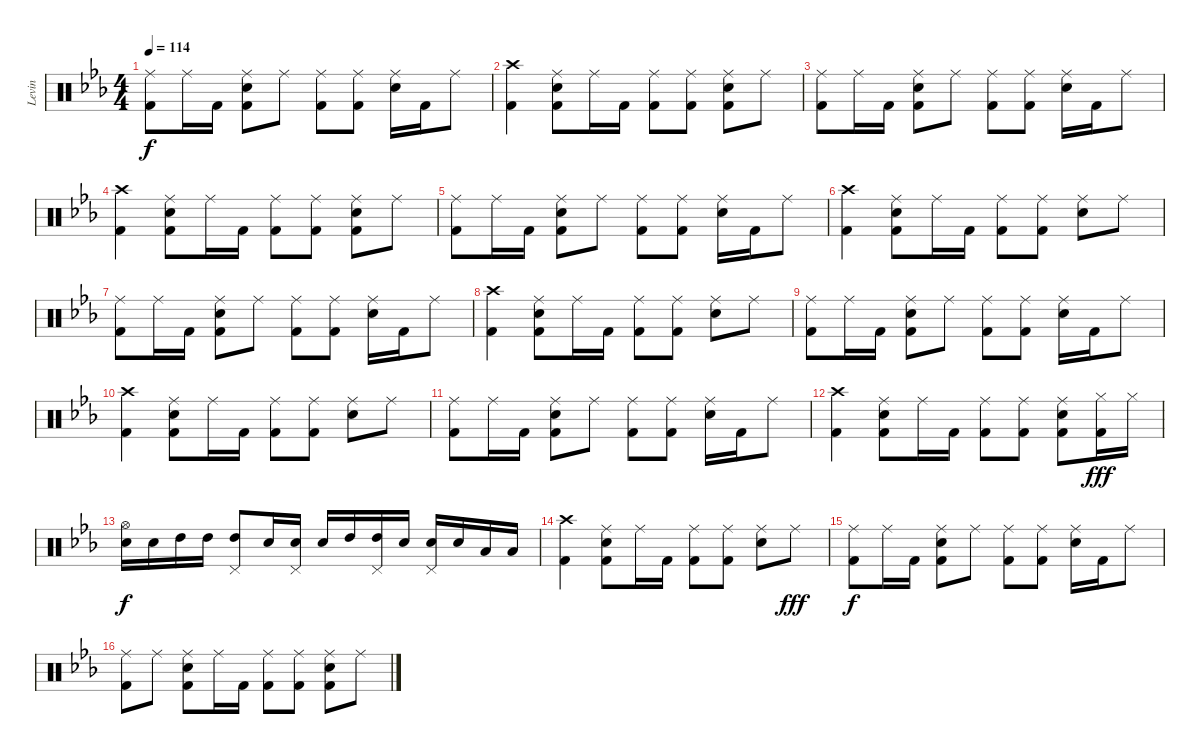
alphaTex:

\track ("Levin" "Levin") {instrument percussion}
\staff {score}
\articulation defaults
\ts (4 4)
\tempo 114
\clef neutral
\ks eb
("Ride (middle)" "Kick (hit) 2").8{dy f} "Ride (middle)".16 "Kick (hit) 2".16 ("Ride (middle)" "Electric Snare (hit)" "Kick (hit) 2").8 "Ride (middle)".8 ("Ride (middle)" "Kick (hit) 2").8 ("Ride (middle)" "Kick (hit) 2").8 ("Ride (middle)" "Electric Snare (hit)").16 "Kick (hit) 2".16 "Ride (middle)".8 |
("Crash high (hit)" "Kick (hit) 2").4 ("Ride (middle)" "Electric Snare (hit)" "Kick (hit) 2").8 "Ride (middle)".16 "Kick (hit) 2".16 ("Ride (middle)" "Kick (hit) 2").8 ("Ride (middle)" "Kick (hit) 2").8 ("Ride (middle)" "Electric Snare (hit)" "Kick (hit) 2").8 "Ride (middle)".8 |
("Ride (middle)" "Kick (hit) 2").8 "Ride (middle)".16 "Kick (hit) 2".16 ("Ride (middle)" "Electric Snare (hit)" "Kick (hit) 2").8 "Ride (middle)".8 ("Ride (middle)" "Kick (hit) 2").8 ("Ride (middle)" "Kick (hit) 2").8 ("Ride (middle)" "Electric Snare (hit)").16 "Kick (hit) 2".16 "Ride (middle)".8 |
("Crash high (hit)" "Kick (hit) 2").4 ("Ride (middle)" "Electric Snare (hit)" "Kick (hit) 2").8 "Ride (middle)".16 "Kick (hit) 2".16 ("Ride (middle)" "Kick (hit) 2").8 ("Ride (middle)" "Kick (hit) 2").8 ("Ride (middle)" "Electric Snare (hit)" "Kick (hit) 2").8 "Ride (middle)".8 |
("Ride (middle)" "Kick (hit) 2").8 "Ride (middle)".16 "Kick (hit) 2".16 ("Ride (middle)" "Electric Snare (hit)" "Kick (hit) 2").8 "Ride (middle)".8 ("Ride (middle)" "Kick (hit) 2").8 ("Ride (middle)" "Kick (hit) 2").8 ("Ride (middle)" "Electric Snare (hit)").16 "Kick (hit) 2".16 "Ride (middle)".8 |
("Crash high (hit)" "Kick (hit) 2").4 ("Ride (middle)" "Electric Snare (hit)" "Kick (hit) 2").8 "Ride (middle)".16 "Kick (hit) 2".16 ("Ride (middle)" "Kick (hit) 2").8 ("Ride (middle)" "Kick (hit) 2").8 ("Ride (middle)" "Electric Snare (hit)").8 "Ride (middle)".8 |
("Ride (middle)" "Kick (hit) 2").8 "Ride (middle)".16 "Kick (hit) 2".16 ("Ride (middle)" "Electric Snare (hit)" "Kick (hit) 2").8 "Ride (middle)".8 ("Ride (middle)" "Kick (hit) 2").8 ("Ride (middle)" "Kick (hit) 2").8 ("Ride (middle)" "Electric Snare (hit)").16 "Kick (hit) 2".16 "Ride (middle)".8 |
("Crash high (hit)" "Kick (hit) 2").4 ("Ride (middle)" "Electric Snare (hit)" "Kick (hit) 2").8 "Ride (middle)".16 "Kick (hit) 2".16 ("Ride (middle)" "Kick (hit) 2").8 ("Ride (middle)" "Kick (hit) 2").8 ("Ride (middle)" "Electric Snare (hit)").8 "Ride (middle)".8 |
("Ride (middle)" "Kick (hit) 2").8 "Ride (middle)".16 "Kick (hit) 2".16 ("Ride (middle)" "Electric Snare (hit)" "Kick (hit) 2").8 "Ride (middle)".8 ("Ride (middle)" "Kick (hit) 2").8 ("Ride (middle)" "Kick (hit) 2").8 ("Ride (middle)" "Electric Snare (hit)").16 "Kick (hit) 2".16 "Ride (middle)".8 |
("Crash high (hit)" "Kick (hit) 2").4 ("Ride (middle)" "Electric Snare (hit)" "Kick (hit) 2").8 "Ride (middle)".16 "Kick (hit) 2".16 ("Ride (middle)" "Kick (hit) 2").8 ("Ride (middle)" "Kick (hit) 2").8 ("Ride (middle)" "Electric Snare (hit)").8 "Ride (middle)".8 |
("Ride (middle)" "Kick (hit) 2").8 "Ride (middle)".16 "Kick (hit) 2".16 ("Ride (middle)" "Electric Snare (hit)" "Kick (hit) 2").8 "Ride (middle)".8 ("Ride (middle)" "Kick (hit) 2").8 ("Ride (middle)" "Kick (hit) 2").8 ("Ride (middle)" "Electric Snare (hit)").16 "Kick (hit) 2".16 "Ride (middle)".8 |
("Crash high (hit)" "Kick (hit) 2").4 ("Ride (middle)" "Electric Snare (hit)" "Kick (hit) 2").8 "Ride (middle)".16 "Kick (hit) 2".16 ("Ride (middle)" "Kick (hit) 2").8 ("Ride (middle)" "Kick (hit) 2").8 ("Ride (middle)" "Electric Snare (hit)" "Kick (hit) 2").8 ("Hi-Hat (closed)" "Kick (hit) 2").16{dy fff} "Hi-Hat (closed)".16 |
("Hi-Hat (open)" "Electric Snare (hit)").16{dy f} "Electric Snare (hit)".16 "High Tom (hit)".16 "High Tom (hit)".16 ("High Tom (hit)" "Pedal Hi-Hat (hit)").8 "Electric Snare (hit)".16 ("Electric Snare (hit)" "Pedal Hi-Hat (hit)").16 "Electric Snare (hit)".16 "High Tom (hit)".16 ("High Tom (hit)" "Pedal Hi-Hat (hit)").16 "Electric Snare (hit)".16 ("Electric Snare (hit)" "Pedal Hi-Hat (hit)").16 "Electric Snare (hit)".16 "Low Tom (hit)".16 "Low Tom (hit)".16 |
("Crash high (hit)" "Kick (hit) 2").4 ("Ride (middle)" "Electric Snare (hit)" "Kick (hit) 2").8 "Ride (middle)".16 "Kick (hit) 2".16 ("Ride (middle)" "Kick (hit) 2").8 ("Ride (middle)" "Kick (hit) 2").8 ("Ride (middle)" "Electric Snare (hit)").8 "Ride (middle)".8{dy fff} |
("Ride (middle)" "Kick (hit) 2").8{dy f} "Ride (middle)".16 "Kick (hit) 2".16 ("Ride (middle)" "Electric Snare (hit)" "Kick (hit) 2").8 "Ride (middle)".8 ("Ride (middle)" "Kick (hit) 2").8 ("Ride (middle)" "Kick (hit) 2").8 ("Ride (middle)" "Electric Snare (hit)").16 "Kick (hit) 2".16 "Ride (middle)".8 |
("Ride (middle)" "Kick (hit) 2").8 "Ride (middle)".8 ("Ride (middle)" "Electric Snare (hit)" "Kick (hit) 2").8 "Ride (middle)".16 "Kick (hit) 2".16 ("Ride (middle)" "Kick (hit) 2").8 ("Ride (middle)" "Kick (hit) 2").8 ("Ride (middle)" "Electric Snare (hit)" "Kick (hit) 2").8 "Ride (middle)".8
